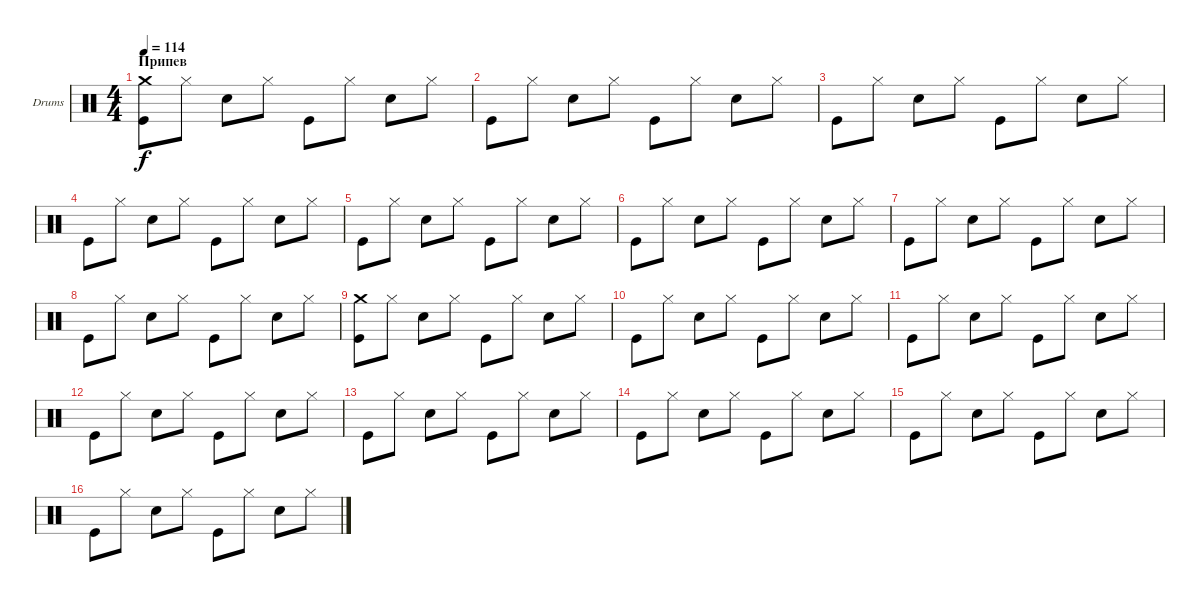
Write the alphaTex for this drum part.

\defaultSystemsLayout 4
\bracketExtendMode groupsimilarinstruments
\firstSystemTrackNameOrientation horizontal
\otherSystemsTrackNameOrientation horizontal
\track ("Е. Кулаков" "Drums") {instrument percussion}
\staff {score}
\articulation defaults
\ts (4 4)
\section ("" "Припев")
\tempo 114
\clef neutral
\ks c
("Kick (hit)" "Crash medium (hit)").8{dy f} "Hi-Hat (closed)".8 "Snare (hit) 2".8 "Hi-Hat (closed)".8 "Kick (hit)".8 "Hi-Hat (closed)".8 "Snare (hit) 2".8 "Hi-Hat (closed)".8 |
"Kick (hit)".8 "Hi-Hat (closed)".8 "Snare (hit) 2".8 "Hi-Hat (closed)".8 "Kick (hit)".8 "Hi-Hat (closed)".8 "Snare (hit) 2".8 "Hi-Hat (closed)".8 |
"Kick (hit)".8 "Hi-Hat (closed)".8 "Snare (hit) 2".8 "Hi-Hat (closed)".8 "Kick (hit)".8 "Hi-Hat (closed)".8 "Snare (hit) 2".8 "Hi-Hat (closed)".8 |
"Kick (hit)".8 "Hi-Hat (closed)".8 "Snare (hit) 2".8 "Hi-Hat (closed)".8 "Kick (hit)".8 "Hi-Hat (closed)".8 "Snare (hit) 2".8 "Hi-Hat (closed)".8 |
"Kick (hit)".8 "Hi-Hat (closed)".8 "Snare (hit) 2".8 "Hi-Hat (closed)".8 "Kick (hit)".8 "Hi-Hat (closed)".8 "Snare (hit) 2".8 "Hi-Hat (closed)".8 |
"Kick (hit)".8 "Hi-Hat (closed)".8 "Snare (hit) 2".8 "Hi-Hat (closed)".8 "Kick (hit)".8 "Hi-Hat (closed)".8 "Snare (hit) 2".8 "Hi-Hat (closed)".8 |
"Kick (hit)".8 "Hi-Hat (closed)".8 "Snare (hit) 2".8 "Hi-Hat (closed)".8 "Kick (hit)".8 "Hi-Hat (closed)".8 "Snare (hit) 2".8 "Hi-Hat (closed)".8 |
"Kick (hit)".8 "Hi-Hat (closed)".8 "Snare (hit) 2".8 "Hi-Hat (closed)".8 "Kick (hit)".8 "Hi-Hat (closed)".8 "Snare (hit) 2".8 "Hi-Hat (closed)".8 |
("Kick (hit)" "Crash medium (hit)").8 "Hi-Hat (closed)".8 "Snare (hit) 2".8 "Hi-Hat (closed)".8 "Kick (hit)".8 "Hi-Hat (closed)".8 "Snare (hit) 2".8 "Hi-Hat (closed)".8 |
"Kick (hit)".8 "Hi-Hat (closed)".8 "Snare (hit) 2".8 "Hi-Hat (closed)".8 "Kick (hit)".8 "Hi-Hat (closed)".8 "Snare (hit) 2".8 "Hi-Hat (closed)".8 |
"Kick (hit)".8 "Hi-Hat (closed)".8 "Snare (hit) 2".8 "Hi-Hat (closed)".8 "Kick (hit)".8 "Hi-Hat (closed)".8 "Snare (hit) 2".8 "Hi-Hat (closed)".8 |
"Kick (hit)".8 "Hi-Hat (closed)".8 "Snare (hit) 2".8 "Hi-Hat (closed)".8 "Kick (hit)".8 "Hi-Hat (closed)".8 "Snare (hit) 2".8 "Hi-Hat (closed)".8 |
"Kick (hit)".8 "Hi-Hat (closed)".8 "Snare (hit) 2".8 "Hi-Hat (closed)".8 "Kick (hit)".8 "Hi-Hat (closed)".8 "Snare (hit) 2".8 "Hi-Hat (closed)".8 |
"Kick (hit)".8 "Hi-Hat (closed)".8 "Snare (hit) 2".8 "Hi-Hat (closed)".8 "Kick (hit)".8 "Hi-Hat (closed)".8 "Snare (hit) 2".8 "Hi-Hat (closed)".8 |
"Kick (hit)".8 "Hi-Hat (closed)".8 "Snare (hit) 2".8 "Hi-Hat (closed)".8 "Kick (hit)".8 "Hi-Hat (closed)".8 "Snare (hit) 2".8 "Hi-Hat (closed)".8 |
"Kick (hit)".8 "Hi-Hat (closed)".8 "Snare (hit) 2".8 "Hi-Hat (closed)".8 "Kick (hit)".8 "Hi-Hat (closed)".8 "Snare (hit) 2".8 "Hi-Hat (closed)".8
